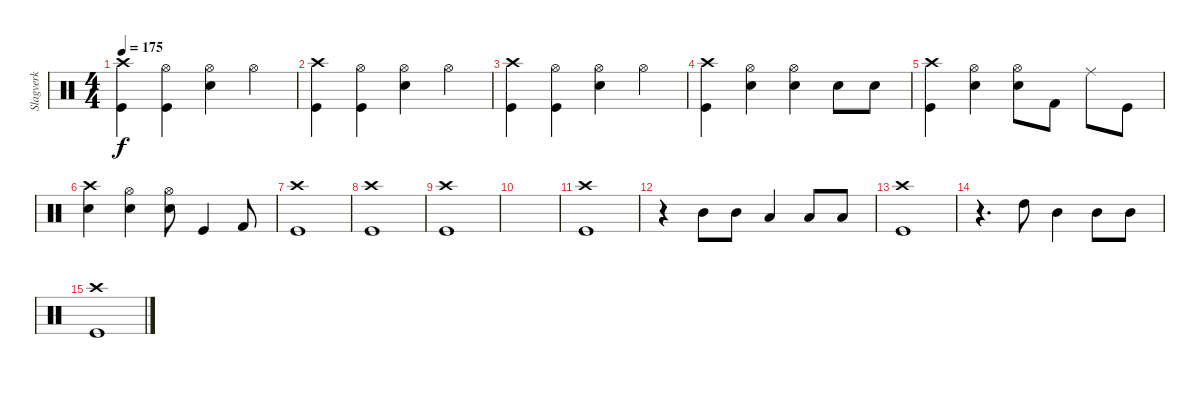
\track ("Slagverk" "Slagverk") {instrument percussion}
\staff {score}
\articulation defaults
\ts (4 4)
\tempo 175
\clef neutral
\ks c
("Crash high (hit)" "Kick (hit)").4{dy f} ("Hi-Hat (open)" "Kick (hit)").4 ("Hi-Hat (open)" "Electric Snare (hit)").4 "Hi-Hat (open)".4 |
("Crash high (hit)" "Kick (hit)").4 ("Hi-Hat (open)" "Kick (hit)").4 ("Hi-Hat (open)" "Electric Snare (hit)").4 "Hi-Hat (open)".4 |
("Crash high (hit)" "Kick (hit)").4 ("Hi-Hat (open)" "Kick (hit)").4 ("Hi-Hat (open)" "Electric Snare (hit)").4 "Hi-Hat (open)".4 |
("Crash high (hit)" "Kick (hit)").4 ("Hi-Hat (open)" "Electric Snare (hit)").4 ("Hi-Hat (open)" "Electric Snare (hit)").4 "Electric Snare (hit)".8 "Electric Snare (hit)".8 |
("Crash high (hit)" "Kick (hit)").4 ("Hi-Hat (open)" "Electric Snare (hit)").4 ("Hi-Hat (open)" "Electric Snare (hit)").8 "Kick (hit) 2".8 "Ride (middle)".8 "Kick (hit)".8 |
("Crash high (hit)" "Electric Snare (hit)").4 ("Hi-Hat (open)" "Electric Snare (hit)").4 ("Hi-Hat (open)" "Electric Snare (hit)").8 "Kick (hit)".4 "Kick (hit) 2".8 |
("Crash high (hit)" "Kick (hit)").1 |
("Crash high (hit)" "Kick (hit)").1 |
("Crash high (hit)" "Kick (hit)").1 |
|
("Crash high (hit)" "Kick (hit)").1 |
r.4 "Mid Tom (hit)".8 "Mid Tom (hit)".8 "Low Tom (hit)".4 "Low Tom (hit)".8 "Low Tom (hit)".8 |
("Crash high (hit)" "Kick (hit)").1 |
r.4{d} "High Tom (hit)".8 "Mid Tom (hit)".4 "Mid Tom (hit)".8 "Mid Tom (hit)".8 |
("Crash high (hit)" "Kick (hit)").1
